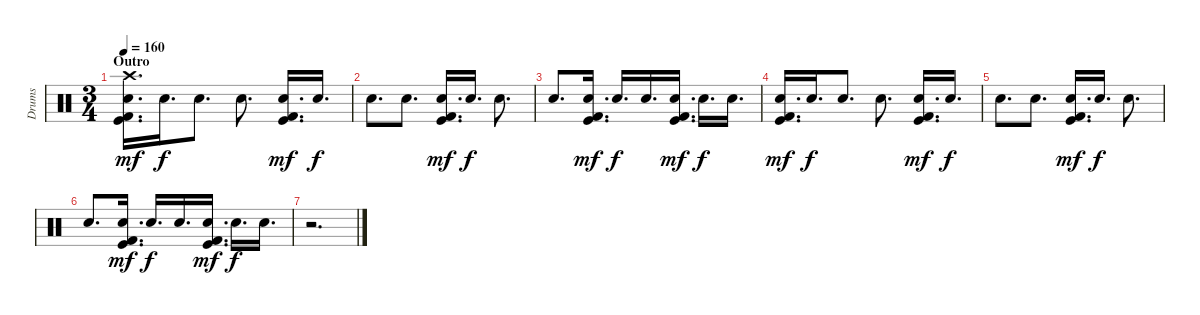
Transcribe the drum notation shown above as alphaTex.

\track ("Drums" "Drums") {instrument percussion}
\staff {score}
\articulation defaults
\ts (3 4)
\section ("" "Outro")
\tempo 160
\clef neutral
\ks c
("Crash high (hit)" "Electric Snare (hit)" "Kick (hit) 2" "Kick (hit)").16{d dy mf} "Electric Snare (hit)".16{d dy f} "Electric Snare (hit)".8{d} "Electric Snare (hit)".8{d} ("Electric Snare (hit)" "Kick (hit) 2" "Kick (hit)").16{d dy mf} "Electric Snare (hit)".16{d dy f} |
"Electric Snare (hit)".8{d} "Electric Snare (hit)".8{d} ("Electric Snare (hit)" "Kick (hit) 2" "Kick (hit)").16{d dy mf} "Electric Snare (hit)".16{d dy f} "Electric Snare (hit)".8{d} |
"Electric Snare (hit)".8{d} ("Electric Snare (hit)" "Kick (hit) 2" "Kick (hit)").16{d dy mf} "Electric Snare (hit)".16{d dy f} "Electric Snare (hit)".16{d} ("Electric Snare (hit)" "Kick (hit) 2" "Kick (hit)").16{d dy mf} "Electric Snare (hit)".16{d dy f} "Electric Snare (hit)".16{d} |
("Electric Snare (hit)" "Kick (hit) 2" "Kick (hit)").16{d dy mf} "Electric Snare (hit)".16{d dy f} "Electric Snare (hit)".8{d} "Electric Snare (hit)".8{d} ("Electric Snare (hit)" "Kick (hit) 2" "Kick (hit)").16{d dy mf} "Electric Snare (hit)".16{d dy f} |
"Electric Snare (hit)".8{d} "Electric Snare (hit)".8{d} ("Electric Snare (hit)" "Kick (hit) 2" "Kick (hit)").16{d dy mf} "Electric Snare (hit)".16{d dy f} "Electric Snare (hit)".8{d} |
"Electric Snare (hit)".8{d} ("Electric Snare (hit)" "Kick (hit) 2" "Kick (hit)").16{d dy mf} "Electric Snare (hit)".16{d dy f} "Electric Snare (hit)".16{d} ("Electric Snare (hit)" "Kick (hit) 2" "Kick (hit)").16{d dy mf} "Electric Snare (hit)".16{d dy f} "Electric Snare (hit)".16{d} |
r.2{d}
